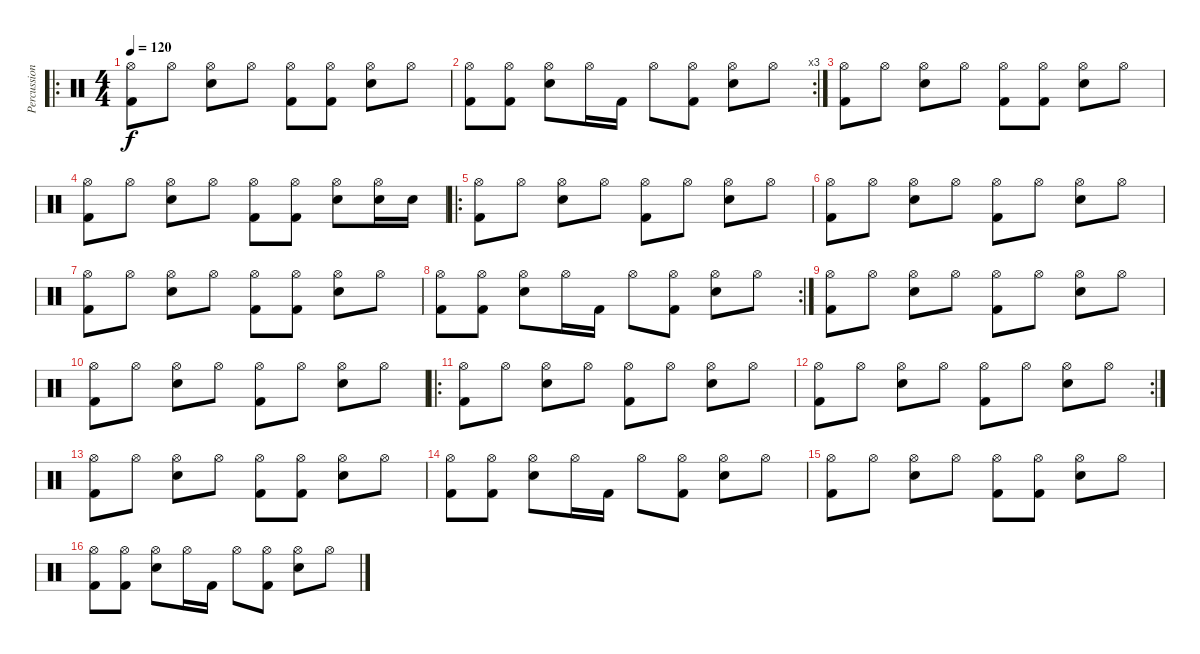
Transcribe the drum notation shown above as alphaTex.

\track ("Percussion" "Percussion") {instrument percussion}
\staff {score}
\articulation defaults
\ro
\ts (4 4)
\tempo 120
\clef neutral
\ks c
("Kick (hit) 2" "Hi-Hat (open)").8{dy f} "Hi-Hat (open)".8 ("Snare (hit) 2" "Hi-Hat (open)").8 "Hi-Hat (open)".8 ("Kick (hit) 2" "Hi-Hat (open)").8 ("Kick (hit) 2" "Hi-Hat (open)").8 ("Snare (hit) 2" "Hi-Hat (open)").8 "Hi-Hat (open)".8 |
\rc 3
("Kick (hit) 2" "Hi-Hat (open)").8 ("Kick (hit) 2" "Hi-Hat (open)").8 ("Snare (hit) 2" "Hi-Hat (open)").8 "Hi-Hat (open)".16 "Kick (hit) 2".16 "Hi-Hat (open)".8 ("Kick (hit) 2" "Hi-Hat (open)").8 ("Snare (hit) 2" "Hi-Hat (open)").8 "Hi-Hat (open)".8 |
("Kick (hit) 2" "Hi-Hat (open)").8 "Hi-Hat (open)".8 ("Snare (hit) 2" "Hi-Hat (open)").8 "Hi-Hat (open)".8 ("Kick (hit) 2" "Hi-Hat (open)").8 ("Kick (hit) 2" "Hi-Hat (open)").8 ("Snare (hit) 2" "Hi-Hat (open)").8 "Hi-Hat (open)".8 |
("Kick (hit) 2" "Hi-Hat (open)").8 "Hi-Hat (open)".8 ("Snare (hit) 2" "Hi-Hat (open)").8 "Hi-Hat (open)".8 ("Kick (hit) 2" "Hi-Hat (open)").8 ("Kick (hit) 2" "Hi-Hat (open)").8 ("Snare (hit) 2" "Hi-Hat (open)").8 ("Snare (hit) 2" "Hi-Hat (open)").16 "Snare (hit) 2".16 |
\ro
("Kick (hit) 2" "Hi-Hat (open)").8 "Hi-Hat (open)".8 ("Snare (hit) 2" "Hi-Hat (open)").8 "Hi-Hat (open)".8 ("Kick (hit) 2" "Hi-Hat (open)").8 "Hi-Hat (open)".8 ("Snare (hit) 2" "Hi-Hat (open)").8 "Hi-Hat (open)".8 |
("Kick (hit) 2" "Hi-Hat (open)").8 "Hi-Hat (open)".8 ("Snare (hit) 2" "Hi-Hat (open)").8 "Hi-Hat (open)".8 ("Kick (hit) 2" "Hi-Hat (open)").8 "Hi-Hat (open)".8 ("Snare (hit) 2" "Hi-Hat (open)").8 "Hi-Hat (open)".8 |
("Kick (hit) 2" "Hi-Hat (open)").8 "Hi-Hat (open)".8 ("Snare (hit) 2" "Hi-Hat (open)").8 "Hi-Hat (open)".8 ("Kick (hit) 2" "Hi-Hat (open)").8 ("Kick (hit) 2" "Hi-Hat (open)").8 ("Snare (hit) 2" "Hi-Hat (open)").8 "Hi-Hat (open)".8 |
\rc 2
("Kick (hit) 2" "Hi-Hat (open)").8 ("Kick (hit) 2" "Hi-Hat (open)").8 ("Snare (hit) 2" "Hi-Hat (open)").8 "Hi-Hat (open)".16 "Kick (hit) 2".16 "Hi-Hat (open)".8 ("Kick (hit) 2" "Hi-Hat (open)").8 ("Snare (hit) 2" "Hi-Hat (open)").8 "Hi-Hat (open)".8 |
("Kick (hit) 2" "Hi-Hat (open)").8 "Hi-Hat (open)".8 ("Snare (hit) 2" "Hi-Hat (open)").8 "Hi-Hat (open)".8 ("Kick (hit) 2" "Hi-Hat (open)").8 "Hi-Hat (open)".8 ("Snare (hit) 2" "Hi-Hat (open)").8 "Hi-Hat (open)".8 |
("Kick (hit) 2" "Hi-Hat (open)").8 "Hi-Hat (open)".8 ("Snare (hit) 2" "Hi-Hat (open)").8 "Hi-Hat (open)".8 ("Kick (hit) 2" "Hi-Hat (open)").8 "Hi-Hat (open)".8 ("Snare (hit) 2" "Hi-Hat (open)").8 "Hi-Hat (open)".8 |
\ro
("Kick (hit) 2" "Hi-Hat (open)").8 "Hi-Hat (open)".8 ("Snare (hit) 2" "Hi-Hat (open)").8 "Hi-Hat (open)".8 ("Kick (hit) 2" "Hi-Hat (open)").8 "Hi-Hat (open)".8 ("Snare (hit) 2" "Hi-Hat (open)").8 "Hi-Hat (open)".8 |
\rc 2
("Kick (hit) 2" "Hi-Hat (open)").8 "Hi-Hat (open)".8 ("Snare (hit) 2" "Hi-Hat (open)").8 "Hi-Hat (open)".8 ("Kick (hit) 2" "Hi-Hat (open)").8 "Hi-Hat (open)".8 ("Snare (hit) 2" "Hi-Hat (open)").8 "Hi-Hat (open)".8 |
("Kick (hit) 2" "Hi-Hat (open)").8 "Hi-Hat (open)".8 ("Snare (hit) 2" "Hi-Hat (open)").8 "Hi-Hat (open)".8 ("Kick (hit) 2" "Hi-Hat (open)").8 ("Kick (hit) 2" "Hi-Hat (open)").8 ("Snare (hit) 2" "Hi-Hat (open)").8 "Hi-Hat (open)".8 |
("Kick (hit) 2" "Hi-Hat (open)").8 ("Kick (hit) 2" "Hi-Hat (open)").8 ("Snare (hit) 2" "Hi-Hat (open)").8 "Hi-Hat (open)".16 "Kick (hit) 2".16 "Hi-Hat (open)".8 ("Kick (hit) 2" "Hi-Hat (open)").8 ("Snare (hit) 2" "Hi-Hat (open)").8 "Hi-Hat (open)".8 |
("Kick (hit) 2" "Hi-Hat (open)").8 "Hi-Hat (open)".8 ("Snare (hit) 2" "Hi-Hat (open)").8 "Hi-Hat (open)".8 ("Kick (hit) 2" "Hi-Hat (open)").8 ("Kick (hit) 2" "Hi-Hat (open)").8 ("Snare (hit) 2" "Hi-Hat (open)").8 "Hi-Hat (open)".8 |
("Kick (hit) 2" "Hi-Hat (open)").8 ("Kick (hit) 2" "Hi-Hat (open)").8 ("Snare (hit) 2" "Hi-Hat (open)").8 "Hi-Hat (open)".16 "Kick (hit) 2".16 "Hi-Hat (open)".8 ("Kick (hit) 2" "Hi-Hat (open)").8 ("Snare (hit) 2" "Hi-Hat (open)").8 "Hi-Hat (open)".8
